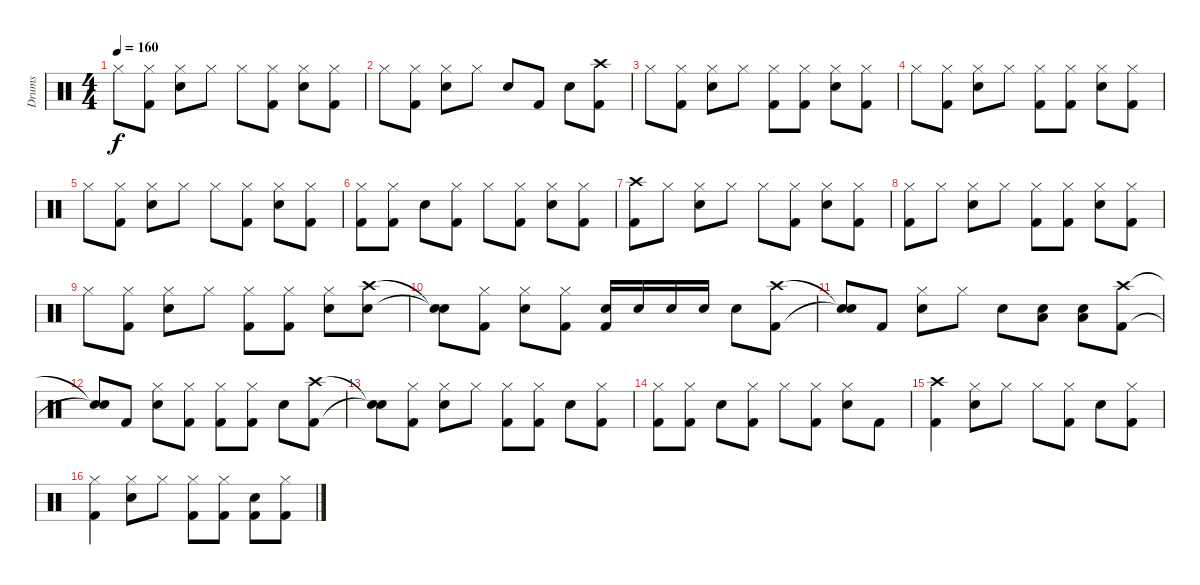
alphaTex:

\track ("Drums" "Drums") {instrument percussion}
\staff {score}
\articulation defaults
\ts (4 4)
\tempo 160
\clef neutral
\ks c "Hi-Hat (closed)".8{dy f}
("Hi-Hat (closed)" "Kick (hit) 2").8 ("Hi-Hat (closed)" "Snare (hit) 2").8 "Hi-Hat (closed)".8 "Hi-Hat (closed)".8 ("Hi-Hat (closed)" "Kick (hit) 2").8 ("Hi-Hat (closed)" "Snare (hit) 2").8 ("Hi-Hat (closed)" "Kick (hit) 2").8 |
"Hi-Hat (closed)".8 ("Hi-Hat (closed)" "Kick (hit) 2").8 ("Hi-Hat (closed)" "Snare (hit) 2").8 "Hi-Hat (closed)".8 "Snare (hit) 2".8 "Kick (hit) 2".8 "Snare (hit) 2".8 ("Crash high (hit)" "Kick (hit) 2").8 |
"Hi-Hat (closed)".8 ("Hi-Hat (closed)" "Kick (hit) 2").8 ("Hi-Hat (closed)" "Snare (hit) 2").8 "Hi-Hat (closed)".8 ("Hi-Hat (closed)" "Kick (hit) 2").8 ("Hi-Hat (closed)" "Kick (hit) 2").8 ("Hi-Hat (closed)" "Snare (hit) 2").8 ("Hi-Hat (closed)" "Kick (hit) 2").8 |
"Hi-Hat (closed)".8 ("Hi-Hat (closed)" "Kick (hit) 2").8 ("Hi-Hat (closed)" "Snare (hit) 2").8 "Hi-Hat (closed)".8 ("Hi-Hat (closed)" "Kick (hit) 2").8 ("Hi-Hat (closed)" "Kick (hit) 2").8 ("Hi-Hat (closed)" "Snare (hit) 2").8 ("Hi-Hat (closed)" "Kick (hit) 2").8 |
"Hi-Hat (closed)".8 ("Hi-Hat (closed)" "Kick (hit) 2").8 ("Hi-Hat (closed)" "Snare (hit) 2").8 "Hi-Hat (closed)".8 "Hi-Hat (closed)".8 ("Hi-Hat (closed)" "Kick (hit) 2").8 ("Hi-Hat (closed)" "Snare (hit) 2").8 ("Hi-Hat (closed)" "Kick (hit) 2").8 |
("Hi-Hat (closed)" "Kick (hit) 2").8 ("Hi-Hat (closed)" "Kick (hit) 2").8 "Snare (hit) 2".8 ("Hi-Hat (closed)" "Kick (hit) 2").8 "Hi-Hat (closed)".8 ("Hi-Hat (closed)" "Kick (hit) 2").8 ("Hi-Hat (closed)" "Snare (hit) 2").8 ("Hi-Hat (closed)" "Kick (hit) 2").8 |
("Crash high (hit)" "Kick (hit) 2").8 "Hi-Hat (closed)".8 ("Hi-Hat (closed)" "Snare (hit) 2").8 "Hi-Hat (closed)".8 "Hi-Hat (closed)".8 ("Hi-Hat (closed)" "Kick (hit) 2").8 ("Hi-Hat (closed)" "Snare (hit) 2").8 ("Hi-Hat (closed)" "Kick (hit) 2").8 |
("Hi-Hat (closed)" "Kick (hit) 2").8 "Hi-Hat (closed)".8 ("Hi-Hat (closed)" "Snare (hit) 2").8 "Hi-Hat (closed)".8 ("Hi-Hat (closed)" "Kick (hit) 2").8 ("Hi-Hat (closed)" "Kick (hit) 2").8 ("Hi-Hat (closed)" "Snare (hit) 2").8 ("Hi-Hat (closed)" "Kick (hit) 2").8 |
"Hi-Hat (closed)".8 ("Hi-Hat (closed)" "Kick (hit) 2").8 ("Hi-Hat (closed)" "Snare (hit) 2").8 "Hi-Hat (closed)".8 ("Hi-Hat (closed)" "Kick (hit) 2").8 ("Hi-Hat (closed)" "Kick (hit) 2").8 ("Hi-Hat (closed)" "Snare (hit) 2").8 ("Crash high (hit)" "Snare (hit) 2").8 |
("Snare (hit)"{t} "Snare (hit)"{t}).8 ("Hi-Hat (closed)" "Kick (hit) 2").8 ("Hi-Hat (closed)" "Snare (hit) 2").8 ("Hi-Hat (closed)" "Kick (hit) 2").8 ("Snare (hit) 2" "Kick (hit) 2").16 "Snare (hit) 2".16 "Snare (hit) 2".16 "Snare (hit) 2".16 "Snare (hit) 2".8 ("Crash high (hit)" "Kick (hit) 2").8 |
("Snare (hit)"{t} "Snare (hit)"{t}).8 "Kick (hit) 2".8 ("Hi-Hat (closed)" "Snare (hit) 2").8 "Hi-Hat (closed)".8 "Snare (hit) 2".8 ("Snare (hit) 2" "Low Tom (hit)").8 ("Snare (hit) 2" "Low Tom (hit)").8 ("Crash high (hit)" "Kick (hit) 2").8 |
("Snare (hit)"{t} "Snare (hit)"{t}).8 "Kick (hit) 2".8 ("Hi-Hat (closed)" "Snare (hit) 2").8 ("Hi-Hat (closed)" "Kick (hit) 2").8 ("Hi-Hat (closed)" "Kick (hit) 2").8 ("Hi-Hat (closed)" "Kick (hit) 2").8 "Snare (hit) 2".8 ("Crash high (hit)" "Kick (hit) 2").8 |
("Snare (hit)"{t} "Snare (hit)"{t}).8 ("Hi-Hat (closed)" "Kick (hit) 2").8 ("Hi-Hat (closed)" "Snare (hit) 2").8 "Hi-Hat (closed)".8 ("Hi-Hat (closed)" "Kick (hit) 2").8 ("Hi-Hat (closed)" "Kick (hit) 2").8 "Snare (hit) 2".8 ("Hi-Hat (closed)" "Kick (hit) 2").8 |
("Hi-Hat (closed)" "Kick (hit) 2").8 ("Hi-Hat (closed)" "Kick (hit) 2").8 "Snare (hit) 2".8 ("Hi-Hat (closed)" "Kick (hit) 2").8 "Hi-Hat (closed)".8 ("Hi-Hat (closed)" "Kick (hit) 2").8 ("Hi-Hat (closed)" "Snare (hit) 2").8 "Kick (hit) 2".8 |
("Crash high (hit)" "Kick (hit) 2").4 ("Hi-Hat (closed)" "Snare (hit) 2").8 "Hi-Hat (closed)".8 "Hi-Hat (closed)".8 ("Hi-Hat (closed)" "Kick (hit) 2").8 "Snare (hit) 2".8 ("Hi-Hat (closed)" "Kick (hit) 2").8 |
("Hi-Hat (closed)" "Kick (hit) 2").4 ("Hi-Hat (closed)" "Snare (hit) 2").8 "Hi-Hat (closed)".8 ("Hi-Hat (closed)" "Kick (hit) 2").8 ("Hi-Hat (closed)" "Kick (hit) 2").8 ("Kick (hit) 2" "Snare (hit) 2").8 ("Hi-Hat (closed)" "Kick (hit) 2").8
